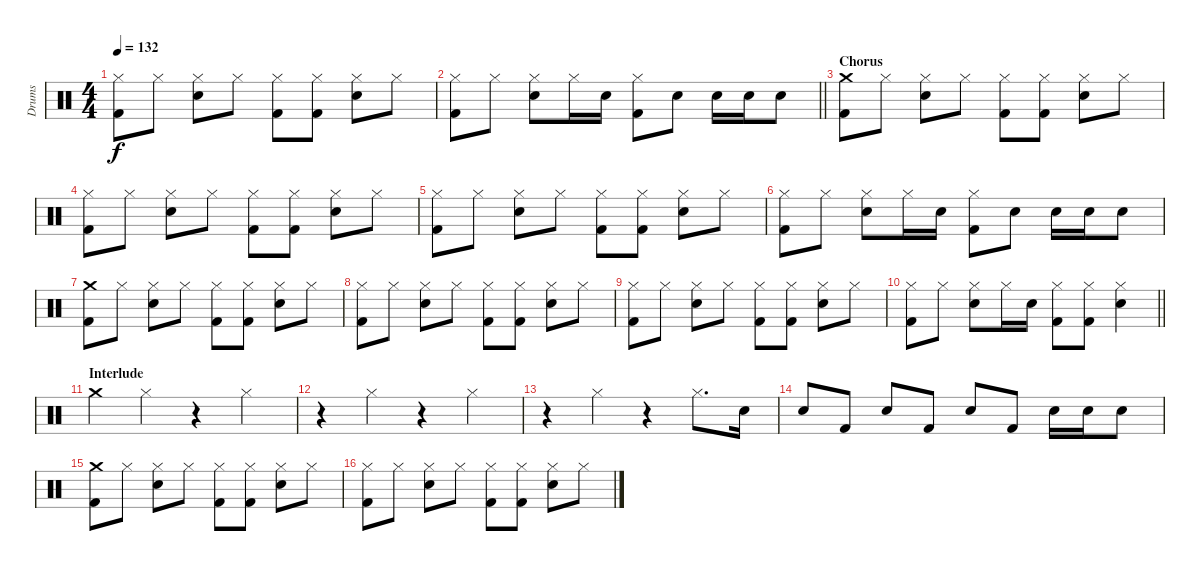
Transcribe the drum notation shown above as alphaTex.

\track ("Drums" "Drums") {instrument percussion}
\staff {score}
\articulation defaults
\ts (4 4)
\tempo 132
\clef neutral
\ks c
("Kick (hit) 2" "Hi-Hat (closed)").8{dy f} "Hi-Hat (closed)".8 ("Snare (hit) 2" "Hi-Hat (closed)").8 "Hi-Hat (closed)".8 ("Kick (hit) 2" "Hi-Hat (closed)").8 ("Kick (hit) 2" "Hi-Hat (closed)").8 ("Snare (hit) 2" "Hi-Hat (closed)").8 "Hi-Hat (closed)".8 |
\barLineRight lightlight
("Kick (hit) 2" "Hi-Hat (closed)").8 "Hi-Hat (closed)".8 ("Snare (hit) 2" "Hi-Hat (closed)").8 "Hi-Hat (closed)".16 "Snare (hit) 2".16 ("Kick (hit) 2" "Hi-Hat (closed)").8 "Snare (hit) 2".8 "Snare (hit) 2".16 "Snare (hit) 2".16 "Snare (hit) 2".8 |
\section ("" "Chorus")
("Kick (hit) 2" "Crash medium (hit)").8 "Hi-Hat (closed)".8 ("Snare (hit) 2" "Hi-Hat (closed)").8 "Hi-Hat (closed)".8 ("Kick (hit) 2" "Hi-Hat (closed)").8 ("Kick (hit) 2" "Hi-Hat (closed)").8 ("Snare (hit) 2" "Hi-Hat (closed)").8 "Hi-Hat (closed)".8 |
("Kick (hit) 2" "Hi-Hat (closed)").8 "Hi-Hat (closed)".8 ("Snare (hit) 2" "Hi-Hat (closed)").8 "Hi-Hat (closed)".8 ("Kick (hit) 2" "Hi-Hat (closed)").8 ("Kick (hit) 2" "Hi-Hat (closed)").8 ("Snare (hit) 2" "Hi-Hat (closed)").8 "Hi-Hat (closed)".8 |
("Kick (hit) 2" "Hi-Hat (closed)").8 "Hi-Hat (closed)".8 ("Snare (hit) 2" "Hi-Hat (closed)").8 "Hi-Hat (closed)".8 ("Kick (hit) 2" "Hi-Hat (closed)").8 ("Kick (hit) 2" "Hi-Hat (closed)").8 ("Snare (hit) 2" "Hi-Hat (closed)").8 "Hi-Hat (closed)".8 |
("Kick (hit) 2" "Hi-Hat (closed)").8 "Hi-Hat (closed)".8 ("Snare (hit) 2" "Hi-Hat (closed)").8 "Hi-Hat (closed)".16 "Snare (hit) 2".16 ("Kick (hit) 2" "Hi-Hat (closed)").8 "Snare (hit) 2".8 "Snare (hit) 2".16 "Snare (hit) 2".16 "Snare (hit) 2".8 |
("Kick (hit) 2" "Crash medium (hit)").8 "Hi-Hat (closed)".8 ("Snare (hit) 2" "Hi-Hat (closed)").8 "Hi-Hat (closed)".8 ("Kick (hit) 2" "Hi-Hat (closed)").8 ("Kick (hit) 2" "Hi-Hat (closed)").8 ("Snare (hit) 2" "Hi-Hat (closed)").8 "Hi-Hat (closed)".8 |
("Kick (hit) 2" "Hi-Hat (closed)").8 "Hi-Hat (closed)".8 ("Snare (hit) 2" "Hi-Hat (closed)").8 "Hi-Hat (closed)".8 ("Kick (hit) 2" "Hi-Hat (closed)").8 ("Kick (hit) 2" "Hi-Hat (closed)").8 ("Snare (hit) 2" "Hi-Hat (closed)").8 "Hi-Hat (closed)".8 |
("Kick (hit) 2" "Hi-Hat (closed)").8 "Hi-Hat (closed)".8 ("Snare (hit) 2" "Hi-Hat (closed)").8 "Hi-Hat (closed)".8 ("Kick (hit) 2" "Hi-Hat (closed)").8 ("Kick (hit) 2" "Hi-Hat (closed)").8 ("Snare (hit) 2" "Hi-Hat (closed)").8 "Hi-Hat (closed)".8 |
\barLineRight lightlight
("Kick (hit) 2" "Hi-Hat (closed)").8 "Hi-Hat (closed)".8 ("Snare (hit) 2" "Hi-Hat (closed)").8 "Hi-Hat (closed)".16 "Snare (hit) 2".16 ("Kick (hit) 2" "Hi-Hat (closed)").8 ("Kick (hit) 2" "Hi-Hat (closed)").8 ("Snare (hit) 2" "Hi-Hat (closed)").4 |
\section ("" "Interlude")
"Crash medium (hit)".4 "Hi-Hat (closed)".4 r.4 "Hi-Hat (closed)".4 |
r.4 "Hi-Hat (closed)".4 r.4 "Hi-Hat (closed)".4 |
r.4 "Hi-Hat (closed)".4 r.4 "Hi-Hat (closed)".8{d} "Snare (hit) 2".16 |
"Snare (hit) 2".8 "Kick (hit) 2".8 "Snare (hit) 2".8 "Kick (hit) 2".8 "Snare (hit) 2".8 "Kick (hit) 2".8 "Snare (hit) 2".16 "Snare (hit) 2".16 "Snare (hit) 2".8 |
("Kick (hit) 2" "Crash medium (hit)").8 "Hi-Hat (closed)".8 ("Snare (hit) 2" "Hi-Hat (closed)").8 "Hi-Hat (closed)".8 ("Kick (hit) 2" "Hi-Hat (closed)").8 ("Kick (hit) 2" "Hi-Hat (closed)").8 ("Snare (hit) 2" "Hi-Hat (closed)").8 "Hi-Hat (closed)".8 |
("Kick (hit) 2" "Hi-Hat (closed)").8 "Hi-Hat (closed)".8 ("Snare (hit) 2" "Hi-Hat (closed)").8 "Hi-Hat (closed)".8 ("Kick (hit) 2" "Hi-Hat (closed)").8 ("Kick (hit) 2" "Hi-Hat (closed)").8 ("Snare (hit) 2" "Hi-Hat (closed)").8 "Hi-Hat (closed)".8
